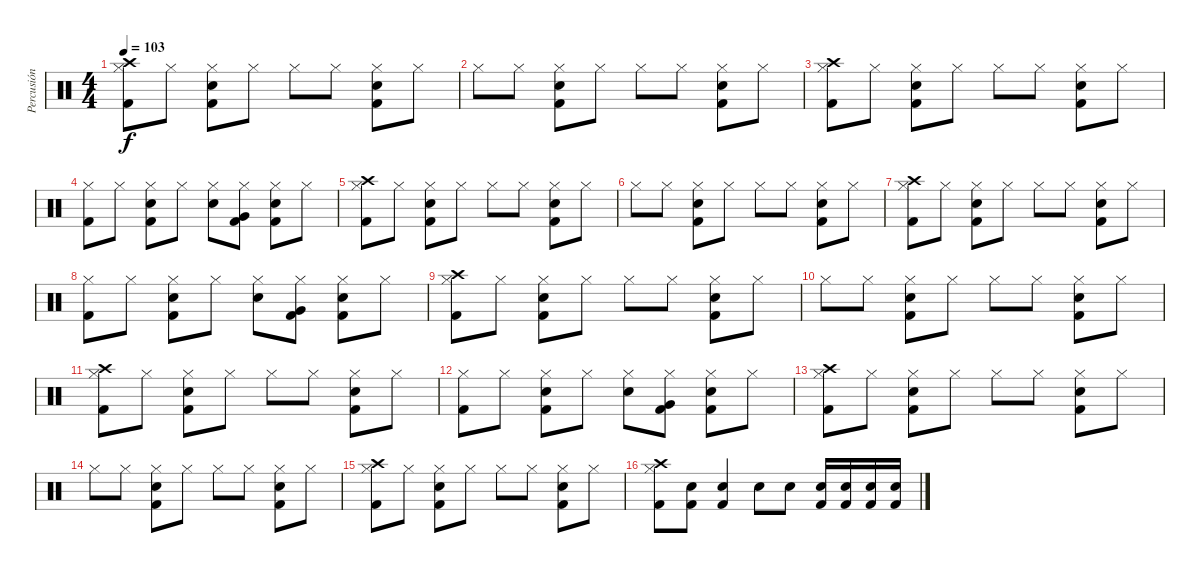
\track ("Percusión" "Percusión") {instrument percussion}
\staff {score}
\articulation defaults
\ts (4 4)
\tempo 103
\clef neutral
\ks c
("Hi-Hat (closed)" "Crash high (hit)" "Kick (hit) 2").8{dy f} "Hi-Hat (closed)".8 ("Hi-Hat (closed)" "Snare (hit) 2" "Kick (hit) 2").8 "Hi-Hat (closed)".8 "Hi-Hat (closed)".8 "Hi-Hat (closed)".8 ("Hi-Hat (closed)" "Snare (hit) 2" "Kick (hit) 2").8 "Hi-Hat (closed)".8 |
"Hi-Hat (closed)".8 "Hi-Hat (closed)".8 ("Hi-Hat (closed)" "Snare (hit) 2" "Kick (hit) 2").8 "Hi-Hat (closed)".8 "Hi-Hat (closed)".8 "Hi-Hat (closed)".8 ("Hi-Hat (closed)" "Snare (hit) 2" "Kick (hit) 2").8 "Hi-Hat (closed)".8 |
("Hi-Hat (closed)" "Crash high (hit)" "Kick (hit) 2").8 "Hi-Hat (closed)".8 ("Hi-Hat (closed)" "Snare (hit) 2" "Kick (hit) 2").8 "Hi-Hat (closed)".8 "Hi-Hat (closed)".8 "Hi-Hat (closed)".8 ("Hi-Hat (closed)" "Snare (hit) 2" "Kick (hit) 2").8 "Hi-Hat (closed)".8 |
("Hi-Hat (closed)" "Kick (hit) 2").8 "Hi-Hat (closed)".8 ("Hi-Hat (closed)" "Snare (hit) 2" "Kick (hit) 2").8 "Hi-Hat (closed)".8 ("Hi-Hat (closed)" "Electric Snare (hit)").8 ("Hi-Hat (closed)" "Very Low Tom (hit)" "Kick (hit) 2").8 ("Hi-Hat (closed)" "Snare (hit) 2" "Kick (hit) 2").8 "Hi-Hat (closed)".8 |
("Hi-Hat (closed)" "Crash high (hit)" "Kick (hit) 2").8 "Hi-Hat (closed)".8 ("Hi-Hat (closed)" "Snare (hit) 2" "Kick (hit) 2").8 "Hi-Hat (closed)".8 "Hi-Hat (closed)".8 "Hi-Hat (closed)".8 ("Hi-Hat (closed)" "Snare (hit) 2" "Kick (hit) 2").8 "Hi-Hat (closed)".8 |
"Hi-Hat (closed)".8 "Hi-Hat (closed)".8 ("Hi-Hat (closed)" "Snare (hit) 2" "Kick (hit) 2").8 "Hi-Hat (closed)".8 "Hi-Hat (closed)".8 "Hi-Hat (closed)".8 ("Hi-Hat (closed)" "Snare (hit) 2" "Kick (hit) 2").8 "Hi-Hat (closed)".8 |
("Hi-Hat (closed)" "Crash high (hit)" "Kick (hit) 2").8 "Hi-Hat (closed)".8 ("Hi-Hat (closed)" "Snare (hit) 2" "Kick (hit) 2").8 "Hi-Hat (closed)".8 "Hi-Hat (closed)".8 "Hi-Hat (closed)".8 ("Hi-Hat (closed)" "Snare (hit) 2" "Kick (hit) 2").8 "Hi-Hat (closed)".8 |
("Hi-Hat (closed)" "Kick (hit) 2").8 "Hi-Hat (closed)".8 ("Hi-Hat (closed)" "Snare (hit) 2" "Kick (hit) 2").8 "Hi-Hat (closed)".8 ("Hi-Hat (closed)" "Electric Snare (hit)").8 ("Hi-Hat (closed)" "Very Low Tom (hit)" "Kick (hit) 2").8 ("Hi-Hat (closed)" "Snare (hit) 2" "Kick (hit) 2").8 "Hi-Hat (closed)".8 |
("Hi-Hat (closed)" "Crash high (hit)" "Kick (hit) 2").8 "Hi-Hat (closed)".8 ("Hi-Hat (closed)" "Snare (hit) 2" "Kick (hit) 2").8 "Hi-Hat (closed)".8 "Hi-Hat (closed)".8 "Hi-Hat (closed)".8 ("Hi-Hat (closed)" "Snare (hit) 2" "Kick (hit) 2").8 "Hi-Hat (closed)".8 |
"Hi-Hat (closed)".8 "Hi-Hat (closed)".8 ("Hi-Hat (closed)" "Snare (hit) 2" "Kick (hit) 2").8 "Hi-Hat (closed)".8 "Hi-Hat (closed)".8 "Hi-Hat (closed)".8 ("Hi-Hat (closed)" "Snare (hit) 2" "Kick (hit) 2").8 "Hi-Hat (closed)".8 |
("Hi-Hat (closed)" "Crash high (hit)" "Kick (hit) 2").8 "Hi-Hat (closed)".8 ("Hi-Hat (closed)" "Snare (hit) 2" "Kick (hit) 2").8 "Hi-Hat (closed)".8 "Hi-Hat (closed)".8 "Hi-Hat (closed)".8 ("Hi-Hat (closed)" "Snare (hit) 2" "Kick (hit) 2").8 "Hi-Hat (closed)".8 |
("Hi-Hat (closed)" "Kick (hit) 2").8 "Hi-Hat (closed)".8 ("Hi-Hat (closed)" "Snare (hit) 2" "Kick (hit) 2").8 "Hi-Hat (closed)".8 ("Hi-Hat (closed)" "Electric Snare (hit)").8 ("Hi-Hat (closed)" "Very Low Tom (hit)" "Kick (hit) 2").8 ("Hi-Hat (closed)" "Snare (hit) 2" "Kick (hit) 2").8 "Hi-Hat (closed)".8 |
("Hi-Hat (closed)" "Crash high (hit)" "Kick (hit) 2").8 "Hi-Hat (closed)".8 ("Hi-Hat (closed)" "Snare (hit) 2" "Kick (hit) 2").8 "Hi-Hat (closed)".8 "Hi-Hat (closed)".8 "Hi-Hat (closed)".8 ("Hi-Hat (closed)" "Snare (hit) 2" "Kick (hit) 2").8 "Hi-Hat (closed)".8 |
"Hi-Hat (closed)".8 "Hi-Hat (closed)".8 ("Hi-Hat (closed)" "Snare (hit) 2" "Kick (hit) 2").8 "Hi-Hat (closed)".8 "Hi-Hat (closed)".8 "Hi-Hat (closed)".8 ("Hi-Hat (closed)" "Snare (hit) 2" "Kick (hit) 2").8 "Hi-Hat (closed)".8 |
("Hi-Hat (closed)" "Crash high (hit)" "Kick (hit) 2").8 "Hi-Hat (closed)".8 ("Hi-Hat (closed)" "Snare (hit) 2" "Kick (hit) 2").8 "Hi-Hat (closed)".8 "Hi-Hat (closed)".8 "Hi-Hat (closed)".8 ("Hi-Hat (closed)" "Snare (hit) 2" "Kick (hit) 2").8 "Hi-Hat (closed)".8 |
("Hi-Hat (closed)" "Crash high (hit)" "Kick (hit) 2").8 ("Snare (hit) 2" "Kick (hit) 2").8 ("Snare (hit) 2" "Kick (hit) 2").4 "Snare (hit) 2".8 "Snare (hit) 2".8 ("Snare (hit) 2" "Kick (hit) 2").16 ("Snare (hit) 2" "Kick (hit) 2").16 ("Snare (hit) 2" "Kick (hit) 2").16 ("Snare (hit) 2" "Kick (hit) 2").16
